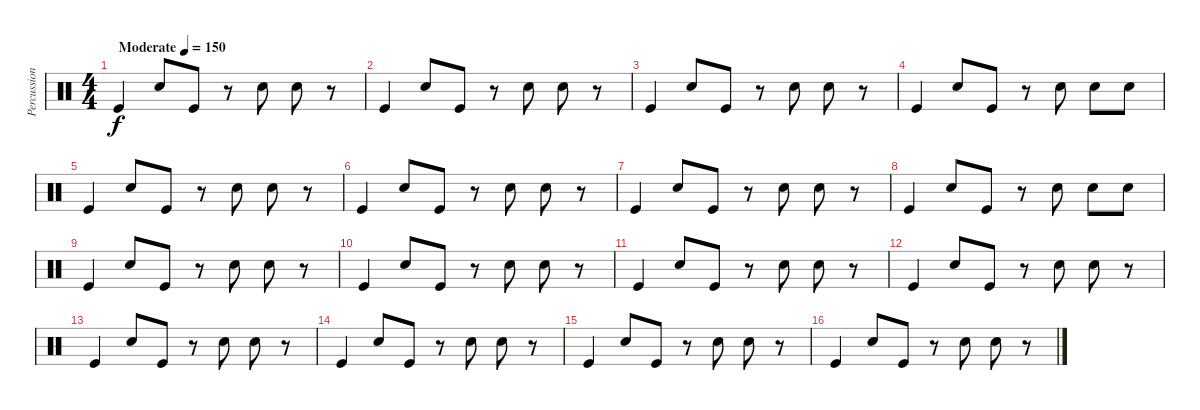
\track ("Percussion" "Percussion") {instrument percussion}
\staff {score}
\articulation defaults
\ts (4 4)
\tempo (150 "Moderate")
\clef neutral
\ks c "Kick (hit)".4{dy f} "Electric Snare (hit)".8 "Kick (hit)".8
r.8 "Electric Snare (hit)".8 "Electric Snare (hit)".8 r.8 |
"Kick (hit)".4 "Electric Snare (hit)".8 "Kick (hit)".8 r.8 "Electric Snare (hit)".8 "Electric Snare (hit)".8 r.8 |
"Kick (hit)".4 "Electric Snare (hit)".8 "Kick (hit)".8 r.8 "Electric Snare (hit)".8 "Electric Snare (hit)".8 r.8 |
"Kick (hit)".4 "Electric Snare (hit)".8 "Kick (hit)".8 r.8 "Electric Snare (hit)".8 "Electric Snare (hit)".8 "Electric Snare (hit)".8 |
"Kick (hit)".4 "Electric Snare (hit)".8 "Kick (hit)".8 r.8 "Electric Snare (hit)".8 "Electric Snare (hit)".8 r.8 |
"Kick (hit)".4 "Electric Snare (hit)".8 "Kick (hit)".8 r.8 "Electric Snare (hit)".8 "Electric Snare (hit)".8 r.8 |
"Kick (hit)".4 "Electric Snare (hit)".8 "Kick (hit)".8 r.8 "Electric Snare (hit)".8 "Electric Snare (hit)".8 r.8 |
"Kick (hit)".4 "Electric Snare (hit)".8 "Kick (hit)".8 r.8 "Electric Snare (hit)".8 "Electric Snare (hit)".8 "Electric Snare (hit)".8 |
"Kick (hit)".4 "Electric Snare (hit)".8 "Kick (hit)".8 r.8 "Electric Snare (hit)".8 "Electric Snare (hit)".8 r.8 |
"Kick (hit)".4 "Electric Snare (hit)".8 "Kick (hit)".8 r.8 "Electric Snare (hit)".8 "Electric Snare (hit)".8 r.8 |
"Kick (hit)".4 "Electric Snare (hit)".8 "Kick (hit)".8 r.8 "Electric Snare (hit)".8 "Electric Snare (hit)".8 r.8 |
"Kick (hit)".4 "Electric Snare (hit)".8 "Kick (hit)".8 r.8 "Electric Snare (hit)".8 "Electric Snare (hit)".8 r.8 |
"Kick (hit)".4 "Electric Snare (hit)".8 "Kick (hit)".8 r.8 "Electric Snare (hit)".8 "Electric Snare (hit)".8 r.8 |
"Kick (hit)".4 "Electric Snare (hit)".8 "Kick (hit)".8 r.8 "Electric Snare (hit)".8 "Electric Snare (hit)".8 r.8 |
"Kick (hit)".4 "Electric Snare (hit)".8 "Kick (hit)".8 r.8 "Electric Snare (hit)".8 "Electric Snare (hit)".8 r.8 |
"Kick (hit)".4 "Electric Snare (hit)".8 "Kick (hit)".8 r.8 "Electric Snare (hit)".8 "Electric Snare (hit)".8 r.8
